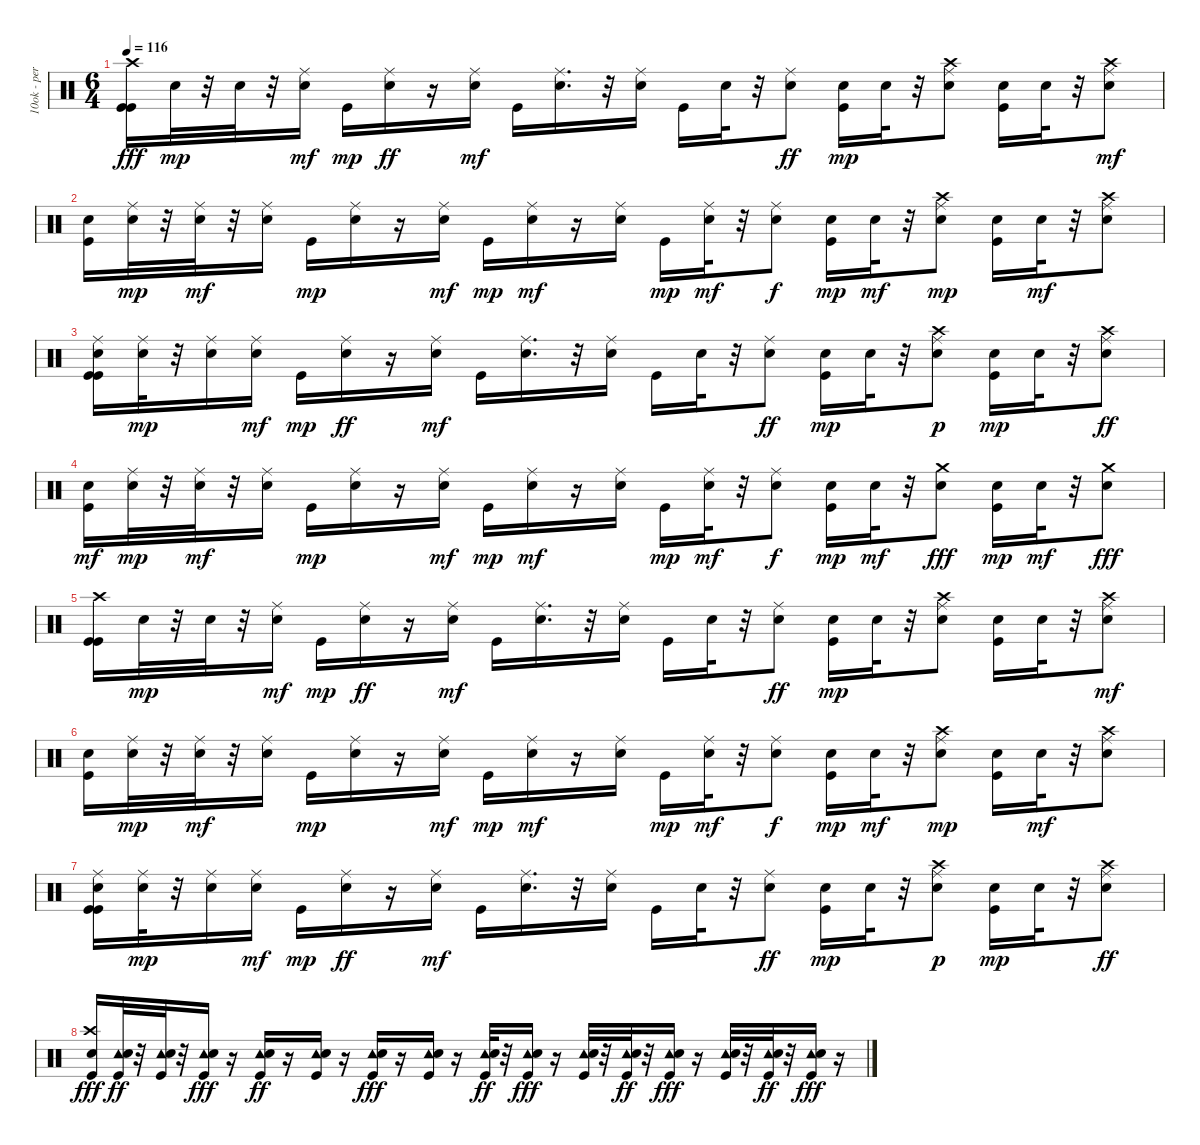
\track ("10ok - percussioni" "10ok - per") {instrument percussion}
\staff {score}
\articulation defaults
\ts (6 4)
\tempo 116
\clef neutral
\ks c
("Kick (hit)" "Crash high (hit)" "Kick (hit)").16{dy fff} "Snare (hit) 2".32{dy mp} r.32 "Snare (hit) 2".32 r.32 ("Ride (middle)" "Snare (hit) 2").16{dy mf} "Kick (hit)".16{dy mp} ("Ride (middle)" "Snare (hit) 2").16{dy ff} r.16 ("Ride (middle)" "Snare (hit) 2").16{dy mf} "Kick (hit)".16 ("Ride (middle)" "Snare (hit) 2").16{d} r.32 ("Ride (middle)" "Snare (hit) 2").16 "Kick (hit)".16 "Snare (hit) 2".32 r.32 ("Ride (middle)" "Snare (hit) 2").8{dy ff} ("Kick (hit)" "Snare (hit) 2").16{dy mp} "Snare (hit) 2".32 r.32 ("Crash high (hit)" "Ride (middle)" "Snare (hit) 2").8 ("Kick (hit)" "Snare (hit) 2").16 "Snare (hit) 2".32 r.32 ("Crash high (hit)" "Ride (middle)" "Snare (hit) 2").8{dy mf} |
("Snare (hit) 2" "Kick (hit)").16 ("Ride (middle)" "Snare (hit) 2").32{dy mp} r.32 ("Ride (middle)" "Snare (hit) 2").32{dy mf} r.32 ("Ride (middle)" "Snare (hit) 2").16 "Kick (hit)".16{dy mp} ("Ride (middle)" "Snare (hit) 2").16 r.16 ("Ride (middle)" "Snare (hit) 2").16{dy mf} "Kick (hit)".16{dy mp} ("Ride (middle)" "Snare (hit) 2").16{dy mf} r.16 ("Ride (middle)" "Snare (hit) 2").16 "Kick (hit)".16{dy mp} ("Ride (middle)" "Snare (hit) 2").32{dy mf} r.32 ("Ride (middle)" "Snare (hit) 2").8{dy f} ("Snare (hit) 2" "Kick (hit)").16{dy mp} "Snare (hit) 2".32{dy mf} r.32 ("Crash high (hit)" "Ride (middle)" "Snare (hit) 2").8{dy mp} ("Snare (hit) 2" "Kick (hit)").16 "Snare (hit) 2".32{dy mf} r.32 ("Crash high (hit)" "Ride (middle)" "Snare (hit) 2").8 |
("Ride (middle)" "Kick (hit)" "Kick (hit)" "Snare (hit) 2").16 ("Ride (middle)" "Snare (hit) 2").32{dy mp} r.32 ("Ride (middle)" "Snare (hit) 2").16 ("Ride (middle)" "Snare (hit) 2").16{dy mf} "Kick (hit)".16{dy mp} ("Ride (middle)" "Snare (hit) 2").16{dy ff} r.16 ("Ride (middle)" "Snare (hit) 2").16{dy mf} "Kick (hit)".16 ("Ride (middle)" "Snare (hit) 2").16{d} r.32 ("Ride (middle)" "Snare (hit) 2").16 "Kick (hit)".16 "Snare (hit) 2".32 r.32 ("Ride (middle)" "Snare (hit) 2").8{dy ff} ("Kick (hit)" "Snare (hit) 2").16{dy mp} "Snare (hit) 2".32 r.32 ("Crash high (hit)" "Ride (middle)" "Snare (hit) 2").8{dy p} ("Kick (hit)" "Snare (hit) 2").16{dy mp} "Snare (hit) 2".32 r.32 ("Crash high (hit)" "Ride (middle)" "Snare (hit) 2").8{dy ff} |
("Snare (hit) 2" "Kick (hit)").16{dy mf} ("Ride (middle)" "Snare (hit) 2").32{dy mp} r.32 ("Ride (middle)" "Snare (hit) 2").32{dy mf} r.32 ("Ride (middle)" "Snare (hit) 2").16 "Kick (hit)".16{dy mp} ("Ride (middle)" "Snare (hit) 2").16 r.16 ("Ride (middle)" "Snare (hit) 2").16{dy mf} "Kick (hit)".16{dy mp} ("Ride (middle)" "Snare (hit) 2").16{dy mf} r.16 ("Ride (middle)" "Snare (hit) 2").16 "Kick (hit)".16{dy mp} ("Ride (middle)" "Snare (hit) 2").32{dy mf} r.32 ("Ride (middle)" "Snare (hit) 2").8{dy f} ("Snare (hit) 2" "Kick (hit)").16{dy mp} "Snare (hit) 2".32{dy mf} r.32 ("Crash medium (hit)" "Snare (hit) 2").8{dy fff} ("Snare (hit) 2" "Kick (hit)").16{dy mp} "Snare (hit) 2".32{dy mf} r.32 ("Crash medium (hit)" "Snare (hit) 2").8{dy fff} |
("Kick (hit)" "Crash high (hit)" "Kick (hit)").16 "Snare (hit) 2".32{dy mp} r.32 "Snare (hit) 2".32 r.32 ("Ride (middle)" "Snare (hit) 2").16{dy mf} "Kick (hit)".16{dy mp} ("Ride (middle)" "Snare (hit) 2").16{dy ff} r.16 ("Ride (middle)" "Snare (hit) 2").16{dy mf} "Kick (hit)".16 ("Ride (middle)" "Snare (hit) 2").16{d} r.32 ("Ride (middle)" "Snare (hit) 2").16 "Kick (hit)".16 "Snare (hit) 2".32 r.32 ("Ride (middle)" "Snare (hit) 2").8{dy ff} ("Kick (hit)" "Snare (hit) 2").16{dy mp} "Snare (hit) 2".32 r.32 ("Crash high (hit)" "Ride (middle)" "Snare (hit) 2").8 ("Kick (hit)" "Snare (hit) 2").16 "Snare (hit) 2".32 r.32 ("Crash high (hit)" "Ride (middle)" "Snare (hit) 2").8{dy mf} |
("Snare (hit) 2" "Kick (hit)").16 ("Ride (middle)" "Snare (hit) 2").32{dy mp} r.32 ("Ride (middle)" "Snare (hit) 2").32{dy mf} r.32 ("Ride (middle)" "Snare (hit) 2").16 "Kick (hit)".16{dy mp} ("Ride (middle)" "Snare (hit) 2").16 r.16 ("Ride (middle)" "Snare (hit) 2").16{dy mf} "Kick (hit)".16{dy mp} ("Ride (middle)" "Snare (hit) 2").16{dy mf} r.16 ("Ride (middle)" "Snare (hit) 2").16 "Kick (hit)".16{dy mp} ("Ride (middle)" "Snare (hit) 2").32{dy mf} r.32 ("Ride (middle)" "Snare (hit) 2").8{dy f} ("Snare (hit) 2" "Kick (hit)").16{dy mp} "Snare (hit) 2".32{dy mf} r.32 ("Crash high (hit)" "Ride (middle)" "Snare (hit) 2").8{dy mp} ("Snare (hit) 2" "Kick (hit)").16 "Snare (hit) 2".32{dy mf} r.32 ("Crash high (hit)" "Ride (middle)" "Snare (hit) 2").8 |
("Ride (middle)" "Kick (hit)" "Kick (hit)" "Snare (hit) 2").16 ("Ride (middle)" "Snare (hit) 2").32{dy mp} r.32 ("Ride (middle)" "Snare (hit) 2").16 ("Ride (middle)" "Snare (hit) 2").16{dy mf} "Kick (hit)".16{dy mp} ("Ride (middle)" "Snare (hit) 2").16{dy ff} r.16 ("Ride (middle)" "Snare (hit) 2").16{dy mf} "Kick (hit)".16 ("Ride (middle)" "Snare (hit) 2").16{d} r.32 ("Ride (middle)" "Snare (hit) 2").16 "Kick (hit)".16 "Snare (hit) 2".32 r.32 ("Ride (middle)" "Snare (hit) 2").8{dy ff} ("Kick (hit)" "Snare (hit) 2").16{dy mp} "Snare (hit) 2".32 r.32 ("Crash high (hit)" "Ride (middle)" "Snare (hit) 2").8{dy p} ("Kick (hit)" "Snare (hit) 2").16{dy mp} "Snare (hit) 2".32 r.32 ("Crash high (hit)" "Ride (middle)" "Snare (hit) 2").8{dy ff} |
("Kick (hit)" "Snare (hit) 2" "Crash high (hit)").16{dy fff} ("Tambourine (hit)" "Kick (hit)" "Snare (hit) 2").32{dy ff} r.32 ("Tambourine (hit)" "Kick (hit)" "Snare (hit) 2").32 r.32 ("Tambourine (hit)" "Kick (hit)" "Snare (hit) 2").16{dy fff} r.16 ("Tambourine (hit)" "Kick (hit)" "Snare (hit) 2").16{dy ff} r.16 ("Tambourine (hit)" "Kick (hit)" "Snare (hit) 2").16 r.16 ("Tambourine (hit)" "Kick (hit)" "Snare (hit) 2").16{dy fff} r.16 ("Tambourine (hit)" "Kick (hit)" "Snare (hit) 2").16 r.16 ("Tambourine (hit)" "Kick (hit)" "Snare (hit) 2").32{dy ff} r.32 ("Tambourine (hit)" "Kick (hit)" "Snare (hit) 2").16{dy fff} r.16 ("Tambourine (hit)" "Kick (hit)" "Snare (hit) 2").32 r.32 ("Tambourine (hit)" "Kick (hit)" "Snare (hit) 2").32{dy ff} r.32 ("Tambourine (hit)" "Kick (hit)" "Snare (hit) 2").16{dy fff} r.16 ("Tambourine (hit)" "Kick (hit)" "Snare (hit) 2").32 r.32 ("Tambourine (hit)" "Kick (hit)" "Snare (hit) 2").32{dy ff} r.32 ("Tambourine (hit)" "Kick (hit)" "Snare (hit) 2").16{dy fff} r.16
